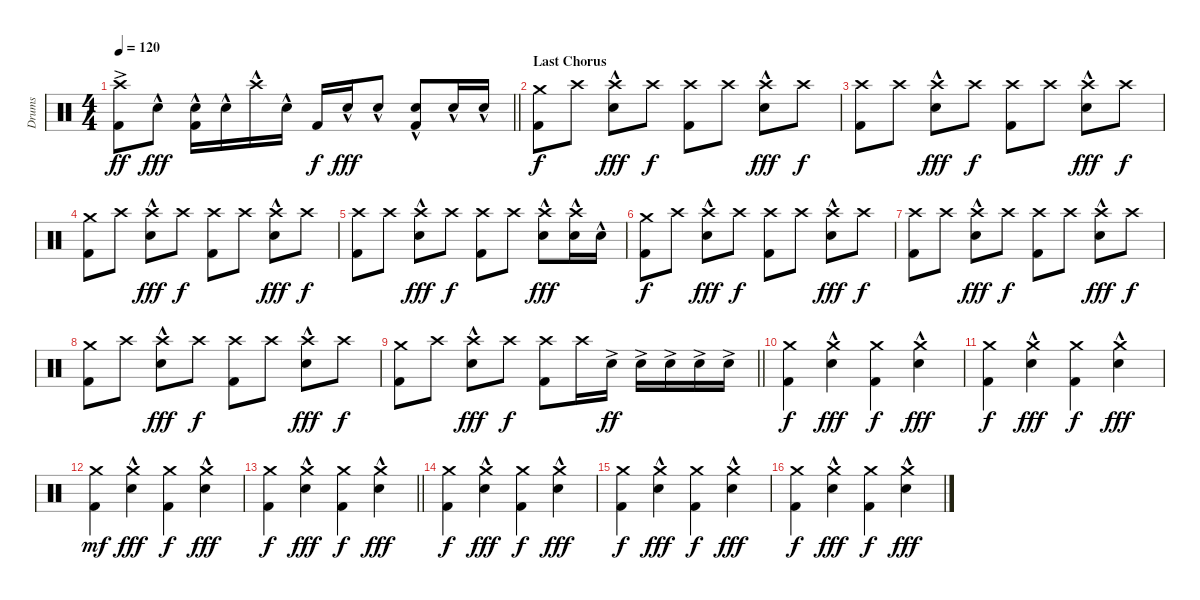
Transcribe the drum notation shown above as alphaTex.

\track ("Drums" "Drums") {instrument percussion}
\staff {score}
\articulation defaults
\ts (4 4)
\tempo 120
\clef neutral
\barLineRight lightlight
\ks c
("Crash high (hit)"{ac} "Kick (hit) 2").8{dy ff} "Electric Snare (hit)"{hac}.8{dy fff} ("Electric Snare (hit)"{hac} "Kick (hit) 2").16 "Electric Snare (hit)"{hac}.16 "Crash high (hit)"{hac}.16 "Electric Snare (hit)"{hac}.16 "Kick (hit) 2".16{dy f} "Electric Snare (hit)"{hac}.16{dy fff} "Electric Snare (hit)"{hac}.8 ("Electric Snare (hit)"{hac} "Kick (hit) 2").8 "Electric Snare (hit)"{hac}.16 "Electric Snare (hit)"{hac}.16 |
\section ("" "Last Chorus")
("Crash medium (hit)" "Kick (hit) 2").8{dy f volume 14} "Crash high (hit)".8 ("Crash high (hit)" "Electric Snare (hit)"{hac}).8{dy fff} "Crash high (hit)".8{dy f} ("Crash high (hit)" "Kick (hit) 2").8 "Crash high (hit)".8 ("Crash high (hit)" "Electric Snare (hit)"{hac}).8{dy fff} "Crash high (hit)".8{dy f} |
("Crash high (hit)" "Kick (hit) 2").8 "Crash high (hit)".8 ("Crash high (hit)" "Electric Snare (hit)"{hac}).8{dy fff} "Crash high (hit)".8{dy f} ("Crash high (hit)" "Kick (hit) 2").8 "Crash high (hit)".8 ("Crash high (hit)" "Electric Snare (hit)"{hac}).8{dy fff} "Crash high (hit)".8{dy f} |
("Crash medium (hit)" "Kick (hit) 2").8 "Crash high (hit)".8 ("Crash high (hit)" "Electric Snare (hit)"{hac}).8{dy fff} "Crash high (hit)".8{dy f} ("Crash high (hit)" "Kick (hit) 2").8 "Crash high (hit)".8 ("Crash high (hit)" "Electric Snare (hit)"{hac}).8{dy fff} "Crash high (hit)".8{dy f} |
("Crash high (hit)" "Kick (hit) 2").8 "Crash high (hit)".8 ("Crash high (hit)" "Electric Snare (hit)"{hac}).8{dy fff} "Crash high (hit)".8{dy f} ("Crash high (hit)" "Kick (hit) 2").8 "Crash high (hit)".8 ("Crash high (hit)" "Electric Snare (hit)"{hac}).8{dy fff} ("Crash high (hit)" "Electric Snare (hit)"{hac}).16 "Electric Snare (hit)"{hac}.16 |
("Crash medium (hit)" "Kick (hit) 2").8{dy f} "Crash high (hit)".8 ("Crash high (hit)" "Electric Snare (hit)"{hac}).8{dy fff} "Crash high (hit)".8{dy f} ("Crash high (hit)" "Kick (hit) 2").8 "Crash high (hit)".8 ("Crash high (hit)" "Electric Snare (hit)"{hac}).8{dy fff} "Crash high (hit)".8{dy f} |
("Crash high (hit)" "Kick (hit) 2").8 "Crash high (hit)".8 ("Crash high (hit)" "Electric Snare (hit)"{hac}).8{dy fff} "Crash high (hit)".8{dy f} ("Crash high (hit)" "Kick (hit) 2").8 "Crash high (hit)".8 ("Crash high (hit)" "Electric Snare (hit)"{hac}).8{dy fff} "Crash high (hit)".8{dy f} |
("Crash medium (hit)" "Kick (hit) 2").8 "Crash high (hit)".8 ("Crash high (hit)" "Electric Snare (hit)"{hac}).8{dy fff} "Crash high (hit)".8{dy f} ("Crash high (hit)" "Kick (hit) 2").8 "Crash high (hit)".8 ("Crash high (hit)" "Electric Snare (hit)"{hac}).8{dy fff} "Crash high (hit)".8{dy f} |
\barLineRight lightlight
("Crash medium (hit)" "Kick (hit) 2").8 "Crash high (hit)".8 ("Crash high (hit)" "Electric Snare (hit)"{hac}).8{dy fff} "Crash high (hit)".8{dy f} ("Crash high (hit)" "Kick (hit) 2").8 "Crash high (hit)".16 "Electric Snare (hit)"{ac}.16{dy ff} "Electric Snare (hit)"{ac}.16 "Electric Snare (hit)"{ac}.16 "Electric Snare (hit)"{ac}.16 "Electric Snare (hit)"{ac}.16 |
("Kick (hit) 2" "Crash medium (hit)").4{dy f} ("Electric Snare (hit)"{hac} "Crash medium (hit)").4{dy fff} ("Kick (hit) 2" "Crash medium (hit)").4{dy f} ("Electric Snare (hit)"{hac} "Crash medium (hit)").4{dy fff} |
("Kick (hit) 2" "Crash medium (hit)").4{dy f} ("Electric Snare (hit)"{hac} "Crash medium (hit)").4{dy fff} ("Kick (hit) 2" "Crash medium (hit)").4{dy f} ("Electric Snare (hit)"{hac} "Crash medium (hit)").4{dy fff} |
("Kick (hit) 2" "Crash medium (hit)").4{dy mf} ("Electric Snare (hit)"{hac} "Crash medium (hit)").4{dy fff} ("Kick (hit) 2" "Crash medium (hit)").4{dy f} ("Electric Snare (hit)"{hac} "Crash medium (hit)").4{dy fff} |
\barLineRight lightlight
("Kick (hit) 2" "Crash medium (hit)").4{dy f} ("Electric Snare (hit)"{hac} "Crash medium (hit)").4{dy fff} ("Kick (hit) 2" "Crash medium (hit)").4{dy f} ("Electric Snare (hit)"{hac} "Crash medium (hit)").4{dy fff} |
("Kick (hit) 2" "Crash medium (hit)").4{dy f} ("Electric Snare (hit)"{hac} "Crash medium (hit)").4{dy fff} ("Kick (hit) 2" "Crash medium (hit)").4{dy f} ("Electric Snare (hit)"{hac} "Crash medium (hit)").4{dy fff} |
("Kick (hit) 2" "Crash medium (hit)").4{dy f} ("Electric Snare (hit)"{hac} "Crash medium (hit)").4{dy fff} ("Kick (hit) 2" "Crash medium (hit)").4{dy f} ("Electric Snare (hit)"{hac} "Crash medium (hit)").4{dy fff} |
("Kick (hit) 2" "Crash medium (hit)").4{dy f} ("Electric Snare (hit)"{hac} "Crash medium (hit)").4{dy fff} ("Kick (hit) 2" "Crash medium (hit)").4{dy f} ("Electric Snare (hit)"{hac} "Crash medium (hit)").4{dy fff}
